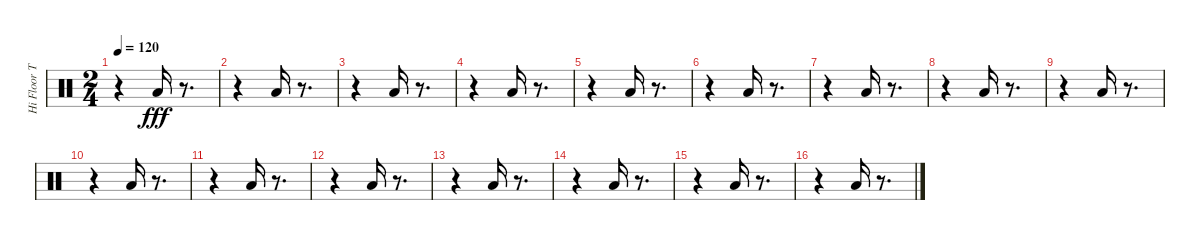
\track ("Hi Floor Tom (1) (1) (1) (1)" "Hi Floor T") {instrument percussion}
\staff {score}
\articulation defaults
\ts (2 4)
\tempo 120
\clef neutral
\ks c
r.4{dy fff} "Low Floor Tom (hit)".16 r.8{d} |
r.4 "Low Floor Tom (hit)".16 r.8{d} |
r.4 "Low Floor Tom (hit)".16 r.8{d} |
r.4 "Low Floor Tom (hit)".16 r.8{d} |
r.4 "Low Floor Tom (hit)".16 r.8{d} |
r.4 "Low Floor Tom (hit)".16 r.8{d} |
r.4 "Low Floor Tom (hit)".16 r.8{d} |
r.4 "Low Floor Tom (hit)".16 r.8{d} |
r.4 "Low Floor Tom (hit)".16 r.8{d} |
r.4 "Low Floor Tom (hit)".16 r.8{d} |
r.4 "Low Floor Tom (hit)".16 r.8{d} |
r.4 "Low Floor Tom (hit)".16 r.8{d} |
r.4 "Low Floor Tom (hit)".16 r.8{d} |
r.4 "Low Floor Tom (hit)".16 r.8{d} |
r.4 "Low Floor Tom (hit)".16 r.8{d} |
r.4 "Low Floor Tom (hit)".16 r.8{d}
